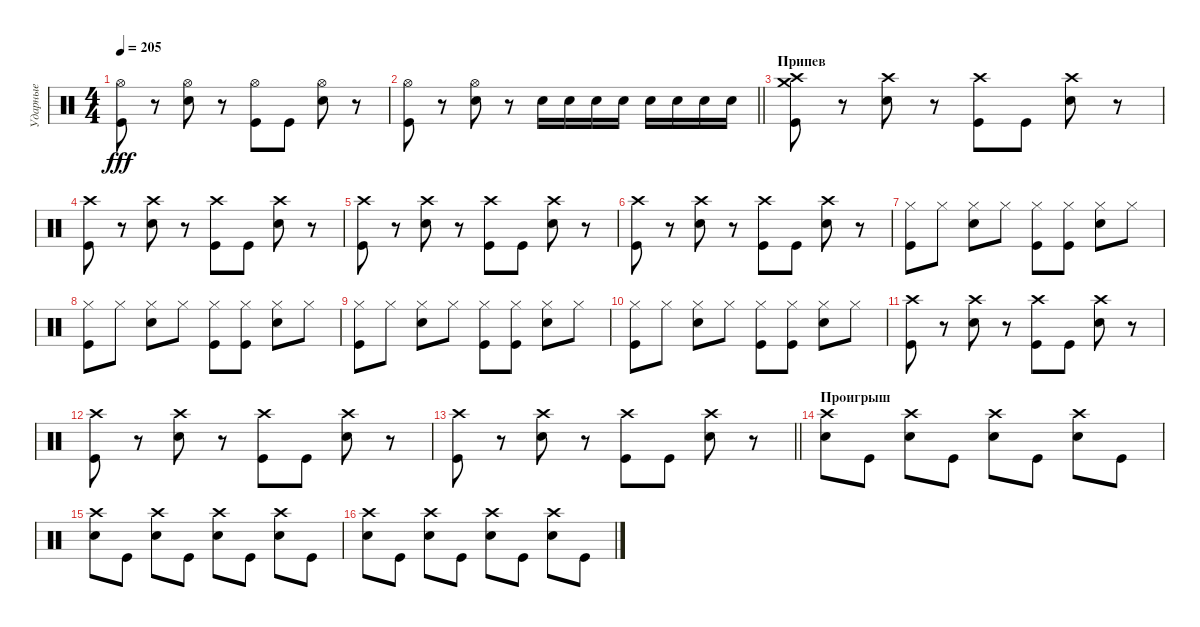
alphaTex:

\track ("Ударные" "Ударные") {instrument percussion}
\staff {score}
\articulation defaults
\ts (4 4)
\tempo 205
\clef neutral
\ks c
("Hi-Hat (open)" "Kick (hit)").8{dy fff} r.8 ("Hi-Hat (open)" "Electric Snare (hit)").8 r.8 ("Hi-Hat (open)" "Kick (hit)").8 "Kick (hit)".8 ("Hi-Hat (open)" "Electric Snare (hit)").8 r.8 |
\barLineRight lightlight
("Hi-Hat (open)" "Kick (hit)").8 r.8 ("Hi-Hat (open)" "Electric Snare (hit)").8 r.8 "Electric Snare (hit)".16 "Electric Snare (hit)".16 "Electric Snare (hit)".16 "Electric Snare (hit)".16 "Electric Snare (hit)".16 "Electric Snare (hit)".16 "Electric Snare (hit)".16 "Electric Snare (hit)".16 |
\section ("" "Припев")
("Crash medium (hit)" "Kick (hit)" "Crash high (hit)").8 r.8 ("Electric Snare (hit)" "Crash high (hit)").8 r.8 ("Kick (hit)" "Crash high (hit)").8 "Kick (hit)".8 ("Electric Snare (hit)" "Crash high (hit)").8 r.8 |
("Kick (hit)" "Crash high (hit)").8 r.8 ("Electric Snare (hit)" "Crash high (hit)").8 r.8 ("Kick (hit)" "Crash high (hit)").8 "Kick (hit)".8 ("Electric Snare (hit)" "Crash high (hit)").8 r.8 |
("Kick (hit)" "Crash high (hit)").8 r.8 ("Electric Snare (hit)" "Crash high (hit)").8 r.8 ("Kick (hit)" "Crash high (hit)").8 "Kick (hit)".8 ("Electric Snare (hit)" "Crash high (hit)").8 r.8 |
("Kick (hit)" "Crash high (hit)").8 r.8 ("Electric Snare (hit)" "Crash high (hit)").8 r.8 ("Kick (hit)" "Crash high (hit)").8 "Kick (hit)".8 ("Electric Snare (hit)" "Crash high (hit)").8 r.8 |
("Kick (hit)" "Hi-Hat (closed)").8 "Hi-Hat (closed)".8 ("Electric Snare (hit)" "Hi-Hat (closed)").8 "Hi-Hat (closed)".8 ("Kick (hit)" "Hi-Hat (closed)").8 ("Kick (hit)" "Hi-Hat (closed)").8 ("Electric Snare (hit)" "Hi-Hat (closed)").8 "Hi-Hat (closed)".8 |
("Kick (hit)" "Hi-Hat (closed)").8 "Hi-Hat (closed)".8 ("Electric Snare (hit)" "Hi-Hat (closed)").8 "Hi-Hat (closed)".8 ("Kick (hit)" "Hi-Hat (closed)").8 ("Kick (hit)" "Hi-Hat (closed)").8 ("Electric Snare (hit)" "Hi-Hat (closed)").8 "Hi-Hat (closed)".8 |
("Kick (hit)" "Hi-Hat (closed)").8 "Hi-Hat (closed)".8 ("Electric Snare (hit)" "Hi-Hat (closed)").8 "Hi-Hat (closed)".8 ("Kick (hit)" "Hi-Hat (closed)").8 ("Kick (hit)" "Hi-Hat (closed)").8 ("Electric Snare (hit)" "Hi-Hat (closed)").8 "Hi-Hat (closed)".8 |
("Kick (hit)" "Hi-Hat (closed)").8 "Hi-Hat (closed)".8 ("Electric Snare (hit)" "Hi-Hat (closed)").8 "Hi-Hat (closed)".8 ("Kick (hit)" "Hi-Hat (closed)").8 ("Kick (hit)" "Hi-Hat (closed)").8 ("Electric Snare (hit)" "Hi-Hat (closed)").8 "Hi-Hat (closed)".8 |
("Kick (hit)" "Crash high (hit)").8 r.8 ("Electric Snare (hit)" "Crash high (hit)").8 r.8 ("Kick (hit)" "Crash high (hit)").8 "Kick (hit)".8 ("Electric Snare (hit)" "Crash high (hit)").8 r.8 |
("Kick (hit)" "Crash high (hit)").8 r.8 ("Electric Snare (hit)" "Crash high (hit)").8 r.8 ("Kick (hit)" "Crash high (hit)").8 "Kick (hit)".8 ("Electric Snare (hit)" "Crash high (hit)").8 r.8 |
\barLineRight lightlight
("Kick (hit)" "Crash high (hit)").8 r.8 ("Electric Snare (hit)" "Crash high (hit)").8 r.8 ("Kick (hit)" "Crash high (hit)").8 "Kick (hit)".8 ("Electric Snare (hit)" "Crash high (hit)").8 r.8 |
\section ("" "Проигрыш")
("Crash high (hit)" "Electric Snare (hit)").8 "Kick (hit)".8 ("Crash high (hit)" "Electric Snare (hit)").8 "Kick (hit)".8 ("Crash high (hit)" "Electric Snare (hit)").8 "Kick (hit)".8 ("Crash high (hit)" "Electric Snare (hit)").8 "Kick (hit)".8 |
("Crash high (hit)" "Electric Snare (hit)").8 "Kick (hit)".8 ("Crash high (hit)" "Electric Snare (hit)").8 "Kick (hit)".8 ("Crash high (hit)" "Electric Snare (hit)").8 "Kick (hit)".8 ("Crash high (hit)" "Electric Snare (hit)").8 "Kick (hit)".8 |
("Crash high (hit)" "Electric Snare (hit)").8 "Kick (hit)".8 ("Crash high (hit)" "Electric Snare (hit)").8 "Kick (hit)".8 ("Crash high (hit)" "Electric Snare (hit)").8 "Kick (hit)".8 ("Crash high (hit)" "Electric Snare (hit)").8 "Kick (hit)".8
